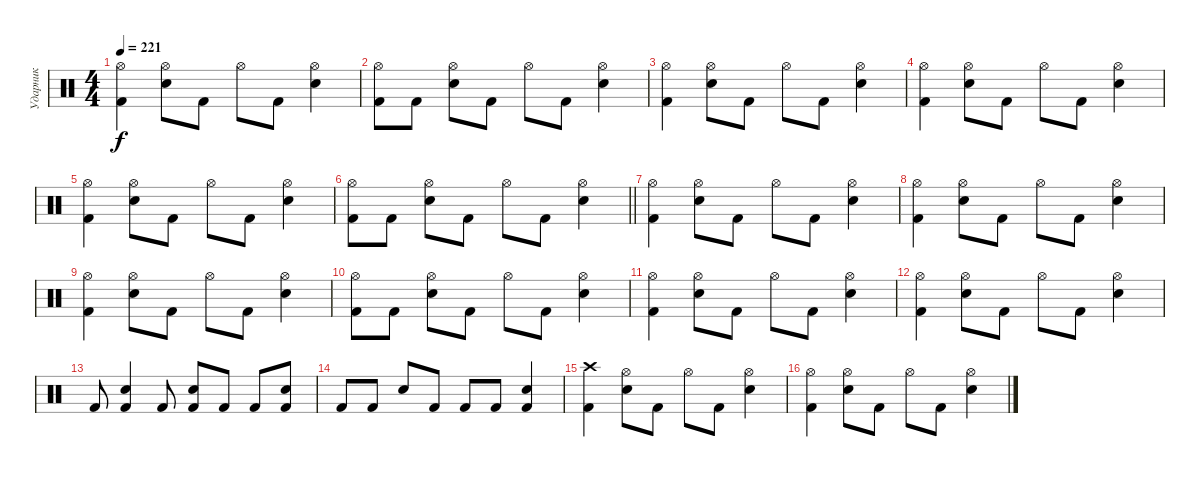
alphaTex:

\track ("Ударник" "Ударник") {instrument percussion}
\staff {score}
\articulation defaults
\ts (4 4)
\tempo 221
\clef neutral
\ks c
("Kick (hit) 2" "Hi-Hat (open)").4{dy f} ("Snare (hit) 2" "Hi-Hat (open)").8 "Kick (hit) 2".8 "Hi-Hat (open)".8 "Kick (hit) 2".8 ("Snare (hit) 2" "Hi-Hat (open)").4 |
("Kick (hit) 2" "Hi-Hat (open)").8 "Kick (hit) 2".8 ("Snare (hit) 2" "Hi-Hat (open)").8 "Kick (hit) 2".8 "Hi-Hat (open)".8 "Kick (hit) 2".8 ("Snare (hit) 2" "Hi-Hat (open)").4 |
("Kick (hit) 2" "Hi-Hat (open)").4 ("Snare (hit) 2" "Hi-Hat (open)").8 "Kick (hit) 2".8 "Hi-Hat (open)".8 "Kick (hit) 2".8 ("Snare (hit) 2" "Hi-Hat (open)").4 |
("Kick (hit) 2" "Hi-Hat (open)").4 ("Snare (hit) 2" "Hi-Hat (open)").8 "Kick (hit) 2".8 "Hi-Hat (open)".8 "Kick (hit) 2".8 ("Snare (hit) 2" "Hi-Hat (open)").4 |
("Kick (hit) 2" "Hi-Hat (open)").4 ("Snare (hit) 2" "Hi-Hat (open)").8 "Kick (hit) 2".8 "Hi-Hat (open)".8 "Kick (hit) 2".8 ("Snare (hit) 2" "Hi-Hat (open)").4 |
\barLineRight lightlight
("Kick (hit) 2" "Hi-Hat (open)").8 "Kick (hit) 2".8 ("Snare (hit) 2" "Hi-Hat (open)").8 "Kick (hit) 2".8 "Hi-Hat (open)".8 "Kick (hit) 2".8 ("Snare (hit) 2" "Hi-Hat (open)").4 |
("Kick (hit) 2" "Hi-Hat (open)").4 ("Snare (hit) 2" "Hi-Hat (open)").8 "Kick (hit) 2".8 "Hi-Hat (open)".8 "Kick (hit) 2".8 ("Snare (hit) 2" "Hi-Hat (open)").4 |
("Kick (hit) 2" "Hi-Hat (open)").4 ("Snare (hit) 2" "Hi-Hat (open)").8 "Kick (hit) 2".8 "Hi-Hat (open)".8 "Kick (hit) 2".8 ("Snare (hit) 2" "Hi-Hat (open)").4 |
("Kick (hit) 2" "Hi-Hat (open)").4 ("Snare (hit) 2" "Hi-Hat (open)").8 "Kick (hit) 2".8 "Hi-Hat (open)".8 "Kick (hit) 2".8 ("Snare (hit) 2" "Hi-Hat (open)").4 |
("Kick (hit) 2" "Hi-Hat (open)").8 "Kick (hit) 2".8 ("Snare (hit) 2" "Hi-Hat (open)").8 "Kick (hit) 2".8 "Hi-Hat (open)".8 "Kick (hit) 2".8 ("Snare (hit) 2" "Hi-Hat (open)").4 |
("Kick (hit) 2" "Hi-Hat (open)").4 ("Snare (hit) 2" "Hi-Hat (open)").8 "Kick (hit) 2".8 "Hi-Hat (open)".8 "Kick (hit) 2".8 ("Snare (hit) 2" "Hi-Hat (open)").4 |
("Kick (hit) 2" "Hi-Hat (open)").4 ("Snare (hit) 2" "Hi-Hat (open)").8 "Kick (hit) 2".8 "Hi-Hat (open)".8 "Kick (hit) 2".8 ("Snare (hit) 2" "Hi-Hat (open)").4 |
"Kick (hit) 2".8 ("Kick (hit) 2" "Snare (hit) 2").4 "Kick (hit) 2".8 ("Kick (hit) 2" "Snare (hit) 2").8 "Kick (hit) 2".8 "Kick (hit) 2".8 ("Kick (hit) 2" "Snare (hit) 2").8 |
"Kick (hit) 2".8 "Kick (hit) 2".8 "Snare (hit) 2".8 "Kick (hit) 2".8 "Kick (hit) 2".8 "Kick (hit) 2".8 ("Kick (hit) 2" "Snare (hit) 2").4 |
("Kick (hit) 2" "Crash high (hit)").4 ("Snare (hit) 2" "Hi-Hat (open)").8 "Kick (hit) 2".8 "Hi-Hat (open)".8 "Kick (hit) 2".8 ("Snare (hit) 2" "Hi-Hat (open)").4 |
("Kick (hit) 2" "Hi-Hat (open)").4 ("Snare (hit) 2" "Hi-Hat (open)").8 "Kick (hit) 2".8 "Hi-Hat (open)".8 "Kick (hit) 2".8 ("Snare (hit) 2" "Hi-Hat (open)").4
